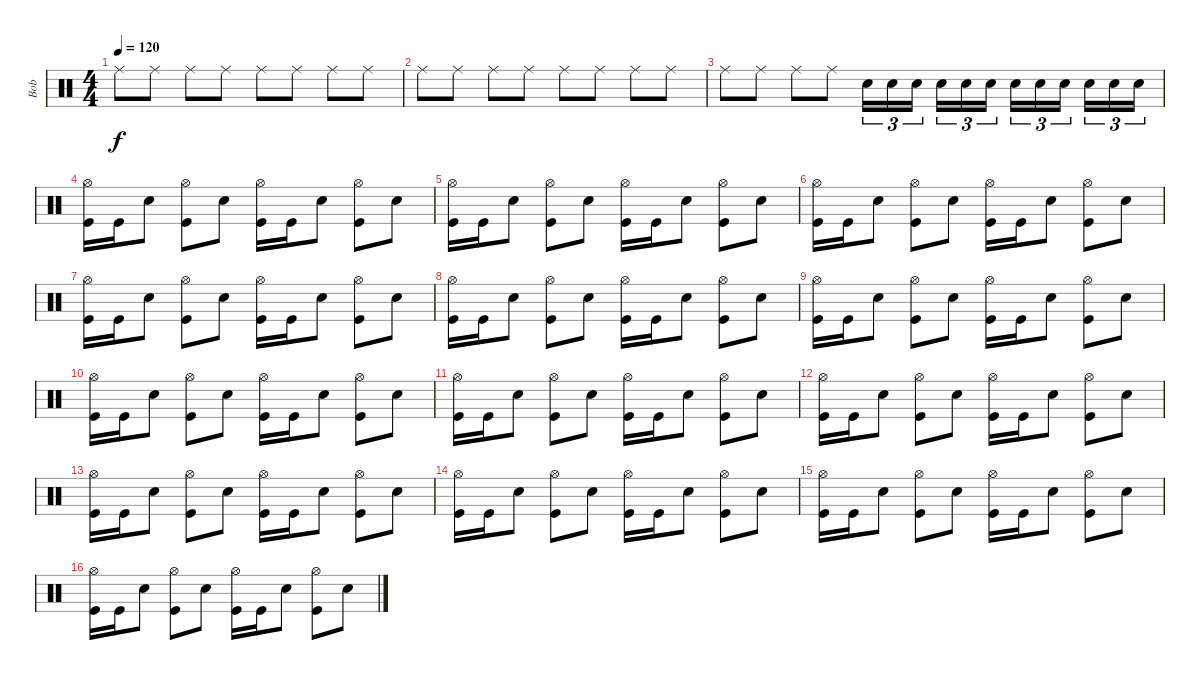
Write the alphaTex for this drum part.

\track ("Bob" "Bob") {instrument percussion}
\staff {score}
\articulation defaults
\ts (4 4)
\tempo 120
\clef neutral
\ks c "Ride (middle)".8{dy f} "Ride (middle)".8 "Ride (middle)".8 "Ride (middle)".8 "Ride (middle)".8 "Ride (middle)".8 "Ride (middle)".8 "Ride (middle)".8
|
"Ride (middle)".8 "Ride (middle)".8 "Ride (middle)".8 "Ride (middle)".8 "Ride (middle)".8 "Ride (middle)".8 "Ride (middle)".8 "Ride (middle)".8 |
"Ride (middle)".8 "Ride (middle)".8 "Ride (middle)".8 "Ride (middle)".8 "Snare (hit) 2".16{tu (3 2)} "Snare (hit) 2".16{tu (3 2)} "Snare (hit) 2".16{tu (3 2)} "Snare (hit) 2".16{tu (3 2)} "Snare (hit) 2".16{tu (3 2)} "Snare (hit) 2".16{tu (3 2)} "Snare (hit) 2".16{tu (3 2)} "Snare (hit) 2".16{tu (3 2)} "Snare (hit) 2".16{tu (3 2)} "Snare (hit) 2".16{tu (3 2)} "Snare (hit) 2".16{tu (3 2)} "Snare (hit) 2".16{tu (3 2)} |
("Hi-Hat (open)" "Kick (hit)").16 "Kick (hit)".16 "Snare (hit) 2".8 ("Hi-Hat (open)" "Kick (hit)").8 "Snare (hit) 2".8 ("Hi-Hat (open)" "Kick (hit)").16 "Kick (hit)".16 "Snare (hit) 2".8 ("Hi-Hat (open)" "Kick (hit)").8 "Snare (hit) 2".8 |
("Hi-Hat (open)" "Kick (hit)").16 "Kick (hit)".16 "Snare (hit) 2".8 ("Hi-Hat (open)" "Kick (hit)").8 "Snare (hit) 2".8 ("Hi-Hat (open)" "Kick (hit)").16 "Kick (hit)".16 "Snare (hit) 2".8 ("Hi-Hat (open)" "Kick (hit)").8 "Snare (hit) 2".8 |
("Hi-Hat (open)" "Kick (hit)").16 "Kick (hit)".16 "Snare (hit) 2".8 ("Hi-Hat (open)" "Kick (hit)").8 "Snare (hit) 2".8 ("Hi-Hat (open)" "Kick (hit)").16 "Kick (hit)".16 "Snare (hit) 2".8 ("Hi-Hat (open)" "Kick (hit)").8 "Snare (hit) 2".8 |
("Hi-Hat (open)" "Kick (hit)").16 "Kick (hit)".16 "Snare (hit) 2".8 ("Hi-Hat (open)" "Kick (hit)").8 "Snare (hit) 2".8 ("Hi-Hat (open)" "Kick (hit)").16 "Kick (hit)".16 "Snare (hit) 2".8 ("Hi-Hat (open)" "Kick (hit)").8 "Snare (hit) 2".8 |
("Hi-Hat (open)" "Kick (hit)").16 "Kick (hit)".16 "Snare (hit) 2".8 ("Hi-Hat (open)" "Kick (hit)").8 "Snare (hit) 2".8 ("Hi-Hat (open)" "Kick (hit)").16 "Kick (hit)".16 "Snare (hit) 2".8 ("Hi-Hat (open)" "Kick (hit)").8 "Snare (hit) 2".8 |
("Hi-Hat (open)" "Kick (hit)").16 "Kick (hit)".16 "Snare (hit) 2".8 ("Hi-Hat (open)" "Kick (hit)").8 "Snare (hit) 2".8 ("Hi-Hat (open)" "Kick (hit)").16 "Kick (hit)".16 "Snare (hit) 2".8 ("Hi-Hat (open)" "Kick (hit)").8 "Snare (hit) 2".8 |
("Hi-Hat (open)" "Kick (hit)").16 "Kick (hit)".16 "Snare (hit) 2".8 ("Hi-Hat (open)" "Kick (hit)").8 "Snare (hit) 2".8 ("Hi-Hat (open)" "Kick (hit)").16 "Kick (hit)".16 "Snare (hit) 2".8 ("Hi-Hat (open)" "Kick (hit)").8 "Snare (hit) 2".8 |
("Hi-Hat (open)" "Kick (hit)").16 "Kick (hit)".16 "Snare (hit) 2".8 ("Hi-Hat (open)" "Kick (hit)").8 "Snare (hit) 2".8 ("Hi-Hat (open)" "Kick (hit)").16 "Kick (hit)".16 "Snare (hit) 2".8 ("Hi-Hat (open)" "Kick (hit)").8 "Snare (hit) 2".8 |
("Hi-Hat (open)" "Kick (hit)").16 "Kick (hit)".16 "Snare (hit) 2".8 ("Hi-Hat (open)" "Kick (hit)").8 "Snare (hit) 2".8 ("Hi-Hat (open)" "Kick (hit)").16 "Kick (hit)".16 "Snare (hit) 2".8 ("Hi-Hat (open)" "Kick (hit)").8 "Snare (hit) 2".8 |
("Hi-Hat (open)" "Kick (hit)").16 "Kick (hit)".16 "Snare (hit) 2".8 ("Hi-Hat (open)" "Kick (hit)").8 "Snare (hit) 2".8 ("Hi-Hat (open)" "Kick (hit)").16 "Kick (hit)".16 "Snare (hit) 2".8 ("Hi-Hat (open)" "Kick (hit)").8 "Snare (hit) 2".8 |
("Hi-Hat (open)" "Kick (hit)").16 "Kick (hit)".16 "Snare (hit) 2".8 ("Hi-Hat (open)" "Kick (hit)").8 "Snare (hit) 2".8 ("Hi-Hat (open)" "Kick (hit)").16 "Kick (hit)".16 "Snare (hit) 2".8 ("Hi-Hat (open)" "Kick (hit)").8 "Snare (hit) 2".8 |
("Hi-Hat (open)" "Kick (hit)").16 "Kick (hit)".16 "Snare (hit) 2".8 ("Hi-Hat (open)" "Kick (hit)").8 "Snare (hit) 2".8 ("Hi-Hat (open)" "Kick (hit)").16 "Kick (hit)".16 "Snare (hit) 2".8 ("Hi-Hat (open)" "Kick (hit)").8 "Snare (hit) 2".8 |
("Hi-Hat (open)" "Kick (hit)").16 "Kick (hit)".16 "Snare (hit) 2".8 ("Hi-Hat (open)" "Kick (hit)").8 "Snare (hit) 2".8 ("Hi-Hat (open)" "Kick (hit)").16 "Kick (hit)".16 "Snare (hit) 2".8 ("Hi-Hat (open)" "Kick (hit)").8 "Snare (hit) 2".8
